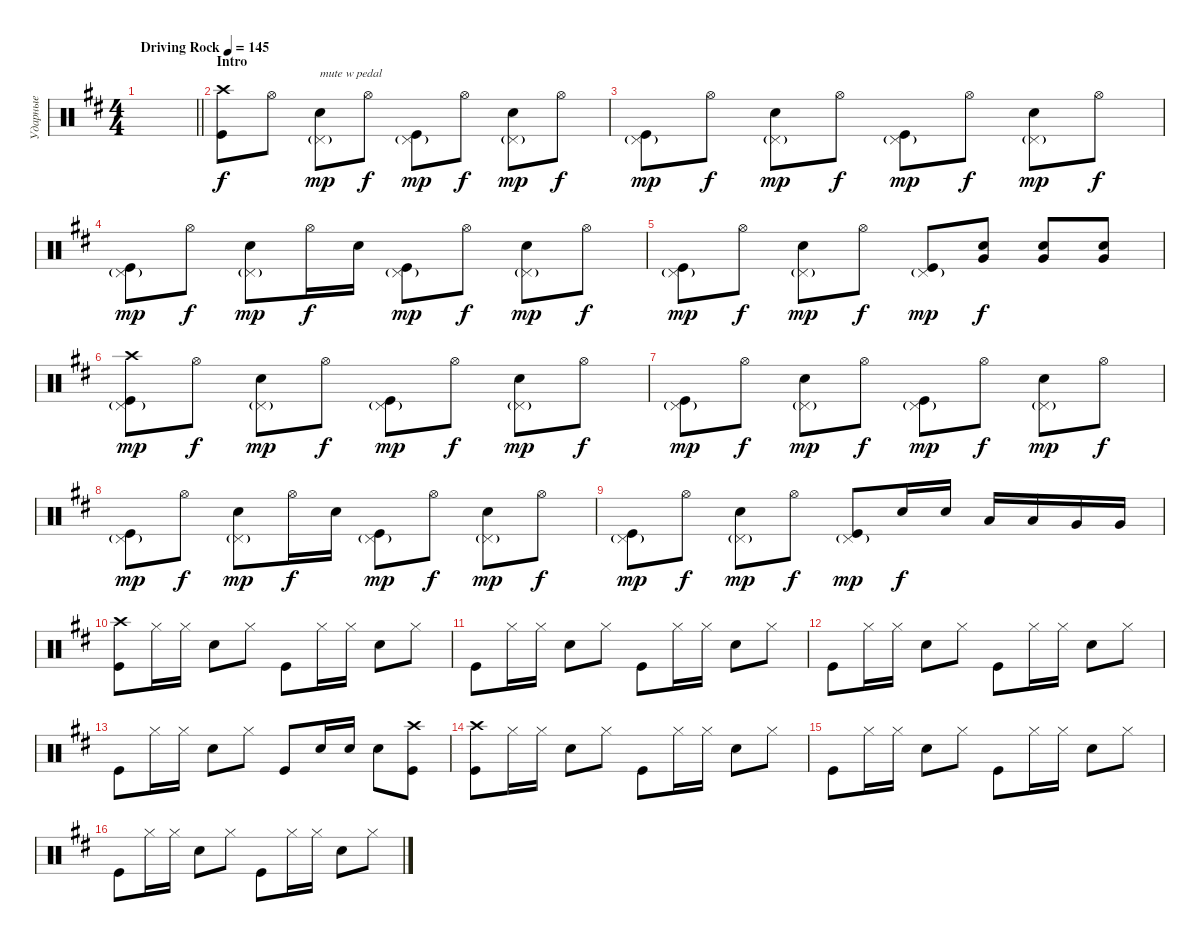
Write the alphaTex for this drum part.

\track ("Ударные" "Ударные") {instrument percussion}
\staff {score}
\articulation defaults
\ts (4 4)
\tempo (145 "Driving Rock")
\clef neutral
\barLineRight lightlight
\ks bminor
|
\section ("" "Intro")
("Kick (hit)" "Crash high (hit)").8 "Hi-Hat (open)".8 ("Snare (hit) 2" "Pedal Hi-Hat (hit)"{g}).8{txt "mute w pedal" dy mp} "Hi-Hat (open)".8{dy f} ("Pedal Hi-Hat (hit)"{g} "Kick (hit)").8{dy mp} "Hi-Hat (open)".8{dy f} ("Snare (hit) 2" "Pedal Hi-Hat (hit)"{g}).8{dy mp} "Hi-Hat (open)".8{dy f} |
("Pedal Hi-Hat (hit)"{g} "Kick (hit)").8{dy mp} "Hi-Hat (open)".8{dy f} ("Snare (hit) 2" "Pedal Hi-Hat (hit)"{g}).8{dy mp} "Hi-Hat (open)".8{dy f} ("Pedal Hi-Hat (hit)"{g} "Kick (hit)").8{dy mp} "Hi-Hat (open)".8{dy f} ("Snare (hit) 2" "Pedal Hi-Hat (hit)"{g}).8{dy mp} "Hi-Hat (open)".8{dy f} |
("Pedal Hi-Hat (hit)"{g} "Kick (hit)").8{dy mp} "Hi-Hat (open)".8{dy f} ("Snare (hit) 2" "Pedal Hi-Hat (hit)"{g}).8{dy mp} "Hi-Hat (open)".16{dy f} "Snare (hit) 2".16 ("Pedal Hi-Hat (hit)"{g} "Kick (hit)").8{dy mp} "Hi-Hat (open)".8{dy f} ("Snare (hit) 2" "Pedal Hi-Hat (hit)"{g}).8{dy mp} "Hi-Hat (open)".8{dy f} |
("Pedal Hi-Hat (hit)"{g} "Kick (hit)").8{dy mp} "Hi-Hat (open)".8{dy f} ("Snare (hit) 2" "Pedal Hi-Hat (hit)"{g}).8{dy mp} "Hi-Hat (open)".8{dy f} ("Pedal Hi-Hat (hit)"{g} "Kick (hit)").8{dy mp} ("Snare (hit) 2" "Very Low Tom (hit)").8{dy f} ("Snare (hit) 2" "Very Low Tom (hit)").8 ("Snare (hit) 2" "Very Low Tom (hit)").8 |
("Pedal Hi-Hat (hit)"{g} "Kick (hit)" "Crash high (hit)").8{dy mp} "Hi-Hat (open)".8{dy f} ("Snare (hit) 2" "Pedal Hi-Hat (hit)"{g}).8{dy mp} "Hi-Hat (open)".8{dy f} ("Pedal Hi-Hat (hit)"{g} "Kick (hit)").8{dy mp} "Hi-Hat (open)".8{dy f} ("Snare (hit) 2" "Pedal Hi-Hat (hit)"{g}).8{dy mp} "Hi-Hat (open)".8{dy f} |
("Pedal Hi-Hat (hit)"{g} "Kick (hit)").8{dy mp} "Hi-Hat (open)".8{dy f} ("Snare (hit) 2" "Pedal Hi-Hat (hit)"{g}).8{dy mp} "Hi-Hat (open)".8{dy f} ("Pedal Hi-Hat (hit)"{g} "Kick (hit)").8{dy mp} "Hi-Hat (open)".8{dy f} ("Snare (hit) 2" "Pedal Hi-Hat (hit)"{g}).8{dy mp} "Hi-Hat (open)".8{dy f} |
("Pedal Hi-Hat (hit)"{g} "Kick (hit)").8{dy mp} "Hi-Hat (open)".8{dy f} ("Snare (hit) 2" "Pedal Hi-Hat (hit)"{g}).8{dy mp} "Hi-Hat (open)".16{dy f} "Snare (hit) 2".16 ("Pedal Hi-Hat (hit)"{g} "Kick (hit)").8{dy mp} "Hi-Hat (open)".8{dy f} ("Snare (hit) 2" "Pedal Hi-Hat (hit)"{g}).8{dy mp} "Hi-Hat (open)".8{dy f} |
("Pedal Hi-Hat (hit)"{g} "Kick (hit)").8{dy mp} "Hi-Hat (open)".8{dy f} ("Snare (hit) 2" "Pedal Hi-Hat (hit)"{g}).8{dy mp} "Hi-Hat (open)".8{dy f} ("Pedal Hi-Hat (hit)"{g} "Kick (hit)").8{dy mp} "Snare (hit) 2".16{dy f} "Snare (hit) 2".16 "Low Tom (hit)".16 "Low Tom (hit)".16 "Very Low Tom (hit)".16 "Very Low Tom (hit)".16 |
("Kick (hit)" "Crash high (hit)").8 "Hi-Hat (closed)".16 "Hi-Hat (closed)".16 "Snare (hit) 2".8 "Hi-Hat (closed)".8 "Kick (hit)".8 "Hi-Hat (closed)".16 "Hi-Hat (closed)".16 "Snare (hit) 2".8 "Hi-Hat (closed)".8 |
"Kick (hit)".8 "Hi-Hat (closed)".16 "Hi-Hat (closed)".16 "Snare (hit) 2".8 "Hi-Hat (closed)".8 "Kick (hit)".8 "Hi-Hat (closed)".16 "Hi-Hat (closed)".16 "Snare (hit) 2".8 "Hi-Hat (closed)".8 |
"Kick (hit)".8 "Hi-Hat (closed)".16 "Hi-Hat (closed)".16 "Snare (hit) 2".8 "Hi-Hat (closed)".8 "Kick (hit)".8 "Hi-Hat (closed)".16 "Hi-Hat (closed)".16 "Snare (hit) 2".8 "Hi-Hat (closed)".8 |
"Kick (hit)".8 "Hi-Hat (closed)".16 "Hi-Hat (closed)".16 "Snare (hit) 2".8 "Hi-Hat (closed)".8 "Kick (hit)".8 "Snare (hit) 2".16 "Snare (hit) 2".16 "Snare (hit) 2".8 ("Kick (hit)" "Crash high (hit)").8 |
("Kick (hit)" "Crash high (hit)").8 "Hi-Hat (closed)".16 "Hi-Hat (closed)".16 "Snare (hit) 2".8 "Hi-Hat (closed)".8 "Kick (hit)".8 "Hi-Hat (closed)".16 "Hi-Hat (closed)".16 "Snare (hit) 2".8 "Hi-Hat (closed)".8 |
"Kick (hit)".8 "Hi-Hat (closed)".16 "Hi-Hat (closed)".16 "Snare (hit) 2".8 "Hi-Hat (closed)".8 "Kick (hit)".8 "Hi-Hat (closed)".16 "Hi-Hat (closed)".16 "Snare (hit) 2".8 "Hi-Hat (closed)".8 |
"Kick (hit)".8 "Hi-Hat (closed)".16 "Hi-Hat (closed)".16 "Snare (hit) 2".8 "Hi-Hat (closed)".8 "Kick (hit)".8 "Hi-Hat (closed)".16 "Hi-Hat (closed)".16 "Snare (hit) 2".8 "Hi-Hat (closed)".8
